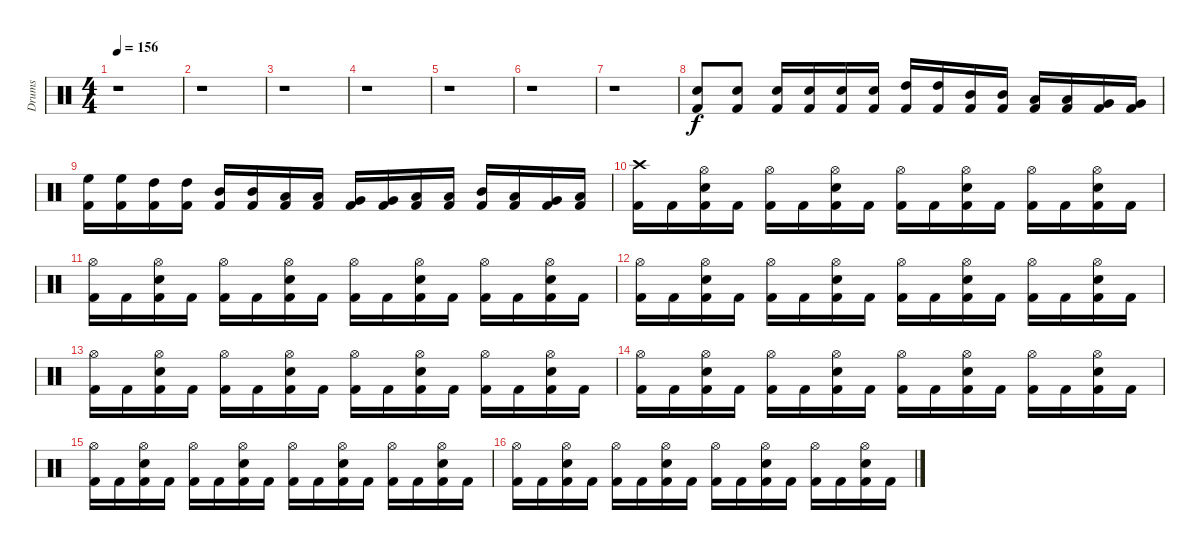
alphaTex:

\track ("Drums" "Drums") {instrument percussion}
\staff {score}
\articulation defaults
\ts (4 4)
\tempo 156
\clef neutral
\ks c
r.1{dy f} |
r.1 |
r.1 |
r.1 |
r.1 |
r.1 |
r.1 |
("Kick (hit) 2" "Snare (hit) 2").8 ("Kick (hit) 2" "Snare (hit) 2").8 ("Kick (hit) 2" "Snare (hit) 2").16 ("Kick (hit) 2" "Snare (hit) 2").16 ("Kick (hit) 2" "Snare (hit) 2").16 ("Kick (hit) 2" "Snare (hit) 2").16 ("Kick (hit) 2" "High Tom (hit)").16 ("Kick (hit) 2" "High Tom (hit)").16 ("Kick (hit) 2" "Mid Tom (hit)").16 ("Kick (hit) 2" "Mid Tom (hit)").16 ("Kick (hit) 2" "Low Tom (hit)").16 ("Kick (hit) 2" "Low Tom (hit)").16 ("Kick (hit) 2" "Very Low Tom (hit)").16 ("Kick (hit) 2" "Very Low Tom (hit)").16 |
("Kick (hit) 2" "High Floor Tom (hit)").16 ("Kick (hit) 2" "High Floor Tom (hit)").16 ("Kick (hit) 2" "High Tom (hit)").16 ("Kick (hit) 2" "High Tom (hit)").16 ("Kick (hit) 2" "Mid Tom (hit)").16 ("Kick (hit) 2" "Mid Tom (hit)").16 ("Kick (hit) 2" "Low Tom (hit)").16 ("Kick (hit) 2" "Low Tom (hit)").16 ("Kick (hit) 2" "Very Low Tom (hit)").16 ("Kick (hit) 2" "Very Low Tom (hit)").16 ("Kick (hit) 2" "Low Floor Tom (hit)").16 ("Kick (hit) 2" "Low Floor Tom (hit)").16 ("Kick (hit) 2" "Mid Tom (hit)").16 ("Kick (hit) 2" "Low Tom (hit)").16 ("Kick (hit) 2" "Very Low Tom (hit)").16 ("Kick (hit) 2" "Low Floor Tom (hit)").16 |
\section ("" "")
("Kick (hit) 2" "Crash high (hit)").16 "Kick (hit) 2".16 ("Kick (hit) 2" "Snare (hit) 2" "Hi-Hat (open)").16 "Kick (hit) 2".16 ("Kick (hit) 2" "Hi-Hat (open)").16 "Kick (hit) 2".16 ("Kick (hit) 2" "Snare (hit) 2" "Hi-Hat (open)").16 "Kick (hit) 2".16 ("Kick (hit) 2" "Hi-Hat (open)").16 "Kick (hit) 2".16 ("Kick (hit) 2" "Snare (hit) 2" "Hi-Hat (open)").16 "Kick (hit) 2".16 ("Kick (hit) 2" "Hi-Hat (open)").16 "Kick (hit) 2".16 ("Kick (hit) 2" "Snare (hit) 2" "Hi-Hat (open)").16 "Kick (hit) 2".16 |
("Kick (hit) 2" "Hi-Hat (open)").16 "Kick (hit) 2".16 ("Kick (hit) 2" "Snare (hit) 2" "Hi-Hat (open)").16 "Kick (hit) 2".16 ("Kick (hit) 2" "Hi-Hat (open)").16 "Kick (hit) 2".16 ("Kick (hit) 2" "Snare (hit) 2" "Hi-Hat (open)").16 "Kick (hit) 2".16 ("Kick (hit) 2" "Hi-Hat (open)").16 "Kick (hit) 2".16 ("Kick (hit) 2" "Snare (hit) 2" "Hi-Hat (open)").16 "Kick (hit) 2".16 ("Kick (hit) 2" "Hi-Hat (open)").16 "Kick (hit) 2".16 ("Kick (hit) 2" "Snare (hit) 2" "Hi-Hat (open)").16 "Kick (hit) 2".16 |
("Kick (hit) 2" "Hi-Hat (open)").16 "Kick (hit) 2".16 ("Kick (hit) 2" "Snare (hit) 2" "Hi-Hat (open)").16 "Kick (hit) 2".16 ("Kick (hit) 2" "Hi-Hat (open)").16 "Kick (hit) 2".16 ("Kick (hit) 2" "Snare (hit) 2" "Hi-Hat (open)").16 "Kick (hit) 2".16 ("Kick (hit) 2" "Hi-Hat (open)").16 "Kick (hit) 2".16 ("Kick (hit) 2" "Snare (hit) 2" "Hi-Hat (open)").16 "Kick (hit) 2".16 ("Kick (hit) 2" "Hi-Hat (open)").16 "Kick (hit) 2".16 ("Kick (hit) 2" "Snare (hit) 2" "Hi-Hat (open)").16 "Kick (hit) 2".16 |
("Kick (hit) 2" "Hi-Hat (open)").16 "Kick (hit) 2".16 ("Kick (hit) 2" "Snare (hit) 2" "Hi-Hat (open)").16 "Kick (hit) 2".16 ("Kick (hit) 2" "Hi-Hat (open)").16 "Kick (hit) 2".16 ("Kick (hit) 2" "Snare (hit) 2" "Hi-Hat (open)").16 "Kick (hit) 2".16 ("Kick (hit) 2" "Hi-Hat (open)").16 "Kick (hit) 2".16 ("Kick (hit) 2" "Snare (hit) 2" "Hi-Hat (open)").16 "Kick (hit) 2".16 ("Kick (hit) 2" "Hi-Hat (open)").16 "Kick (hit) 2".16 ("Kick (hit) 2" "Snare (hit) 2" "Hi-Hat (open)").16 "Kick (hit) 2".16 |
("Kick (hit) 2" "Hi-Hat (open)").16 "Kick (hit) 2".16 ("Kick (hit) 2" "Snare (hit) 2" "Hi-Hat (open)").16 "Kick (hit) 2".16 ("Kick (hit) 2" "Hi-Hat (open)").16 "Kick (hit) 2".16 ("Kick (hit) 2" "Snare (hit) 2" "Hi-Hat (open)").16 "Kick (hit) 2".16 ("Kick (hit) 2" "Hi-Hat (open)").16 "Kick (hit) 2".16 ("Kick (hit) 2" "Snare (hit) 2" "Hi-Hat (open)").16 "Kick (hit) 2".16 ("Kick (hit) 2" "Hi-Hat (open)").16 "Kick (hit) 2".16 ("Kick (hit) 2" "Snare (hit) 2" "Hi-Hat (open)").16 "Kick (hit) 2".16 |
("Kick (hit) 2" "Hi-Hat (open)").16 "Kick (hit) 2".16 ("Kick (hit) 2" "Snare (hit) 2" "Hi-Hat (open)").16 "Kick (hit) 2".16 ("Kick (hit) 2" "Hi-Hat (open)").16 "Kick (hit) 2".16 ("Kick (hit) 2" "Snare (hit) 2" "Hi-Hat (open)").16 "Kick (hit) 2".16 ("Kick (hit) 2" "Hi-Hat (open)").16 "Kick (hit) 2".16 ("Kick (hit) 2" "Snare (hit) 2" "Hi-Hat (open)").16 "Kick (hit) 2".16 ("Kick (hit) 2" "Hi-Hat (open)").16 "Kick (hit) 2".16 ("Kick (hit) 2" "Snare (hit) 2" "Hi-Hat (open)").16 "Kick (hit) 2".16 |
("Kick (hit) 2" "Hi-Hat (open)").16 "Kick (hit) 2".16 ("Kick (hit) 2" "Snare (hit) 2" "Hi-Hat (open)").16 "Kick (hit) 2".16 ("Kick (hit) 2" "Hi-Hat (open)").16 "Kick (hit) 2".16 ("Kick (hit) 2" "Snare (hit) 2" "Hi-Hat (open)").16 "Kick (hit) 2".16 ("Kick (hit) 2" "Hi-Hat (open)").16 "Kick (hit) 2".16 ("Kick (hit) 2" "Snare (hit) 2" "Hi-Hat (open)").16 "Kick (hit) 2".16 ("Kick (hit) 2" "Hi-Hat (open)").16 "Kick (hit) 2".16 ("Kick (hit) 2" "Snare (hit) 2" "Hi-Hat (open)").16 "Kick (hit) 2".16
